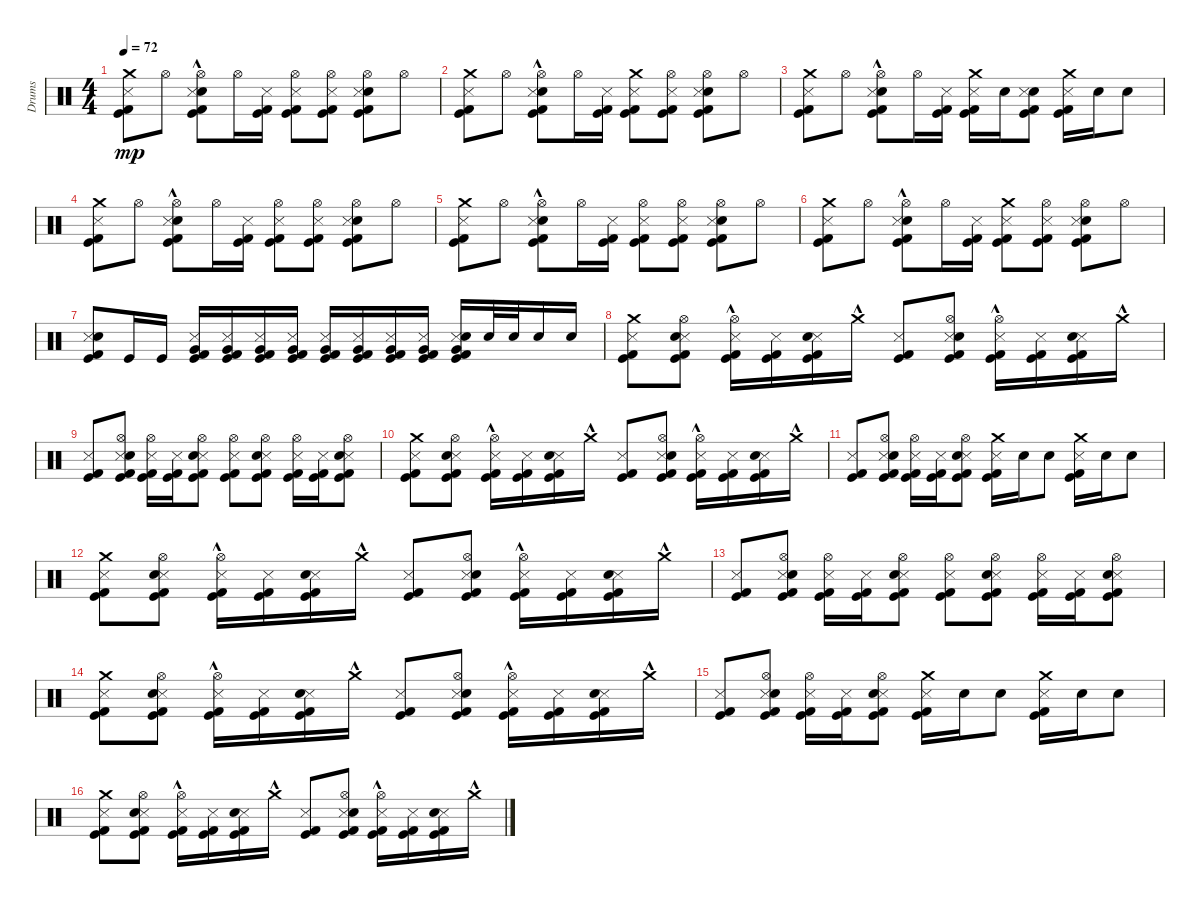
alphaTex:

\track ("Drums" "Drums") {instrument percussion}
\staff {score}
\articulation defaults
\ts (4 4)
\tempo 72
\clef neutral
\ks c
("Crash medium (hit)" "Metronome (hit)" "Kick (hit)" "Kick (hit) 2").8{dy mp} "Hi-Hat (open)".8 ("Snare (hit) 2" "Hi-Hat (open)" "Metronome (hit)"{hac} "Kick (hit)"{hac} "Kick (hit) 2"{hac}).8 "Hi-Hat (open)".16 ("Metronome (hit)" "Kick (hit)" "Kick (hit) 2").16 ("Hi-Hat (open)" "Metronome (hit)" "Kick (hit)" "Kick (hit) 2").8 ("Hi-Hat (open)" "Metronome (hit)" "Kick (hit)" "Kick (hit) 2").8 ("Snare (hit) 2" "Hi-Hat (open)" "Metronome (hit)" "Kick (hit)" "Kick (hit) 2").8 "Hi-Hat (open)".8 |
("Crash medium (hit)" "Metronome (hit)" "Kick (hit)" "Kick (hit) 2").8 "Hi-Hat (open)".8 ("Snare (hit) 2" "Hi-Hat (open)" "Metronome (hit)"{hac} "Kick (hit)"{hac} "Kick (hit) 2"{hac}).8 "Hi-Hat (open)".16 ("Metronome (hit)" "Kick (hit)" "Kick (hit) 2").16 ("Crash medium (hit)" "Metronome (hit)" "Kick (hit)" "Kick (hit) 2").8 ("Hi-Hat (open)" "Metronome (hit)" "Kick (hit)" "Kick (hit) 2").8 ("Snare (hit) 2" "Hi-Hat (open)" "Metronome (hit)" "Kick (hit)" "Kick (hit) 2").8 "Hi-Hat (open)".8 |
("Crash medium (hit)" "Metronome (hit)" "Kick (hit)" "Kick (hit) 2").8 "Hi-Hat (open)".8 ("Snare (hit) 2" "Hi-Hat (open)" "Metronome (hit)"{hac} "Kick (hit)"{hac} "Kick (hit) 2"{hac}).8 "Hi-Hat (open)".16 ("Metronome (hit)" "Kick (hit)" "Kick (hit) 2").16 ("Crash medium (hit)" "Metronome (hit)" "Kick (hit)" "Kick (hit) 2").16 "Snare (hit) 2".16 ("Snare (hit) 2" "Metronome (hit)" "Kick (hit)" "Kick (hit) 2").8 ("Crash medium (hit)" "Metronome (hit)" "Kick (hit)" "Kick (hit) 2").16 "Snare (hit) 2".16 "Snare (hit) 2".8 |
("Crash medium (hit)" "Metronome (hit)" "Kick (hit)" "Kick (hit) 2").8 "Hi-Hat (open)".8 ("Snare (hit) 2" "Hi-Hat (open)" "Metronome (hit)"{hac} "Kick (hit)"{hac} "Kick (hit) 2"{hac}).8 "Hi-Hat (open)".16 ("Metronome (hit)" "Kick (hit)" "Kick (hit) 2").16 ("Hi-Hat (open)" "Metronome (hit)" "Kick (hit)" "Kick (hit) 2").8 ("Hi-Hat (open)" "Metronome (hit)" "Kick (hit)" "Kick (hit) 2").8 ("Snare (hit) 2" "Hi-Hat (open)" "Metronome (hit)" "Kick (hit)" "Kick (hit) 2").8 "Hi-Hat (open)".8 |
("Crash medium (hit)" "Metronome (hit)" "Kick (hit)" "Kick (hit) 2").8 "Hi-Hat (open)".8 ("Snare (hit) 2" "Hi-Hat (open)" "Metronome (hit)"{hac} "Kick (hit)"{hac} "Kick (hit) 2"{hac}).8 "Hi-Hat (open)".16 ("Metronome (hit)" "Kick (hit)" "Kick (hit) 2").16 ("Hi-Hat (open)" "Metronome (hit)" "Kick (hit)" "Kick (hit) 2").8 ("Hi-Hat (open)" "Metronome (hit)" "Kick (hit)" "Kick (hit) 2").8 ("Snare (hit) 2" "Hi-Hat (open)" "Metronome (hit)" "Kick (hit)" "Kick (hit) 2").8 "Hi-Hat (open)".8 |
("Crash medium (hit)" "Metronome (hit)" "Kick (hit)" "Kick (hit) 2").8 "Hi-Hat (open)".8 ("Snare (hit) 2" "Hi-Hat (open)" "Metronome (hit)"{hac} "Kick (hit)"{hac} "Kick (hit) 2"{hac}).8 "Hi-Hat (open)".16 ("Metronome (hit)" "Kick (hit)" "Kick (hit) 2").16 ("Crash medium (hit)" "Metronome (hit)" "Kick (hit)" "Kick (hit) 2").8 ("Hi-Hat (open)" "Metronome (hit)" "Kick (hit)" "Kick (hit) 2").8 ("Snare (hit) 2" "Hi-Hat (open)" "Metronome (hit)" "Kick (hit)" "Kick (hit) 2").8 "Hi-Hat (open)".8 |
("Metronome (hit)" "Kick (hit)" "Kick (hit) 2" "Snare (hit) 2").8 "Kick (hit)".16 "Kick (hit)".16 ("Metronome (hit)" "Kick (hit)" "Kick (hit) 2" "Very Low Tom (hit)").16 ("Metronome (hit)" "Kick (hit)" "Kick (hit) 2" "Very Low Tom (hit)").16 ("Metronome (hit)" "Kick (hit)" "Kick (hit) 2" "Very Low Tom (hit)").16 ("Metronome (hit)" "Kick (hit)" "Kick (hit) 2" "Very Low Tom (hit)").16 ("Metronome (hit)" "Kick (hit)" "Kick (hit) 2" "Very Low Tom (hit)").16 ("Metronome (hit)" "Kick (hit)" "Kick (hit) 2" "Very Low Tom (hit)").16 ("Metronome (hit)" "Kick (hit)" "Kick (hit) 2" "Very Low Tom (hit)").16 ("Metronome (hit)" "Kick (hit)" "Kick (hit) 2" "Very Low Tom (hit)").16 ("Metronome (hit)" "Kick (hit)" "Kick (hit) 2" "Snare (hit) 2" "Very Low Tom (hit)").16 "Snare (hit) 2".32 "Snare (hit) 2".32 "Snare (hit) 2".16 "Snare (hit) 2".16 |
("Crash medium (hit)" "Metronome (hit)" "Kick (hit)" "Kick (hit) 2").8 ("Hi-Hat (open)" "Metronome (hit)" "Kick (hit)" "Kick (hit) 2" "Snare (hit) 2").8 ("Hi-Hat (open)"{hac} "Metronome (hit)" "Kick (hit)" "Kick (hit) 2").16 ("Metronome (hit)" "Kick (hit)" "Kick (hit) 2").16 ("Metronome (hit)" "Kick (hit)" "Kick (hit) 2" "Snare (hit) 2").16 "Crash medium (hit)"{hac}.16 ("Metronome (hit)" "Kick (hit)" "Kick (hit) 2").8 ("Hi-Hat (open)" "Metronome (hit)" "Kick (hit)" "Kick (hit) 2" "Snare (hit) 2").8 ("Hi-Hat (open)"{hac} "Metronome (hit)" "Kick (hit)" "Kick (hit) 2").16 ("Metronome (hit)" "Kick (hit)" "Kick (hit) 2").16 ("Metronome (hit)" "Kick (hit)" "Kick (hit) 2" "Snare (hit) 2").16 "Crash medium (hit)"{hac}.16 |
("Metronome (hit)" "Kick (hit)" "Kick (hit) 2").8 ("Hi-Hat (open)" "Metronome (hit)" "Kick (hit)" "Kick (hit) 2" "Snare (hit) 2").8 ("Hi-Hat (open)" "Metronome (hit)" "Kick (hit)" "Kick (hit) 2").16 ("Metronome (hit)" "Kick (hit)" "Kick (hit) 2").16 ("Hi-Hat (open)" "Metronome (hit)" "Kick (hit)" "Kick (hit) 2" "Snare (hit) 2").8 ("Hi-Hat (open)" "Metronome (hit)" "Kick (hit)" "Kick (hit) 2").8 ("Hi-Hat (open)" "Metronome (hit)" "Kick (hit)" "Kick (hit) 2" "Snare (hit) 2").8 ("Hi-Hat (open)" "Metronome (hit)" "Kick (hit)" "Kick (hit) 2").16 ("Metronome (hit)" "Kick (hit)" "Kick (hit) 2").16 ("Hi-Hat (open)" "Metronome (hit)" "Kick (hit)" "Kick (hit) 2" "Snare (hit) 2").8 |
("Crash medium (hit)" "Metronome (hit)" "Kick (hit)" "Kick (hit) 2").8 ("Hi-Hat (open)" "Metronome (hit)" "Kick (hit)" "Kick (hit) 2" "Snare (hit) 2").8 ("Hi-Hat (open)"{hac} "Metronome (hit)" "Kick (hit)" "Kick (hit) 2").16 ("Metronome (hit)" "Kick (hit)" "Kick (hit) 2").16 ("Metronome (hit)" "Kick (hit)" "Kick (hit) 2" "Snare (hit) 2").16 "Crash medium (hit)"{hac}.16 ("Metronome (hit)" "Kick (hit)" "Kick (hit) 2").8 ("Hi-Hat (open)" "Metronome (hit)" "Kick (hit)" "Kick (hit) 2" "Snare (hit) 2").8 ("Hi-Hat (open)"{hac} "Metronome (hit)" "Kick (hit)" "Kick (hit) 2").16 ("Metronome (hit)" "Kick (hit)" "Kick (hit) 2").16 ("Metronome (hit)" "Kick (hit)" "Kick (hit) 2" "Snare (hit) 2").16 "Crash medium (hit)"{hac}.16 |
("Metronome (hit)" "Kick (hit)" "Kick (hit) 2").8 ("Hi-Hat (open)" "Metronome (hit)" "Kick (hit)" "Kick (hit) 2" "Snare (hit) 2").8 ("Hi-Hat (open)" "Metronome (hit)" "Kick (hit)" "Kick (hit) 2").16 ("Metronome (hit)" "Kick (hit)" "Kick (hit) 2").16 ("Hi-Hat (open)" "Metronome (hit)" "Kick (hit)" "Kick (hit) 2" "Snare (hit) 2").8 ("Crash medium (hit)" "Metronome (hit)" "Kick (hit)" "Kick (hit) 2").16 "Snare (hit) 2".16 "Snare (hit) 2".8 ("Crash medium (hit)" "Metronome (hit)" "Kick (hit)" "Kick (hit) 2").16 "Snare (hit) 2".16 "Snare (hit) 2".8 |
("Crash medium (hit)" "Metronome (hit)" "Kick (hit)" "Kick (hit) 2").8 ("Hi-Hat (open)" "Metronome (hit)" "Kick (hit)" "Kick (hit) 2" "Snare (hit) 2").8 ("Hi-Hat (open)"{hac} "Metronome (hit)" "Kick (hit)" "Kick (hit) 2").16 ("Metronome (hit)" "Kick (hit)" "Kick (hit) 2").16 ("Metronome (hit)" "Kick (hit)" "Kick (hit) 2" "Snare (hit) 2").16 "Crash medium (hit)"{hac}.16 ("Metronome (hit)" "Kick (hit)" "Kick (hit) 2").8 ("Hi-Hat (open)" "Metronome (hit)" "Kick (hit)" "Kick (hit) 2" "Snare (hit) 2").8 ("Hi-Hat (open)"{hac} "Metronome (hit)" "Kick (hit)" "Kick (hit) 2").16 ("Metronome (hit)" "Kick (hit)" "Kick (hit) 2").16 ("Metronome (hit)" "Kick (hit)" "Kick (hit) 2" "Snare (hit) 2").16 "Crash medium (hit)"{hac}.16 |
("Metronome (hit)" "Kick (hit)" "Kick (hit) 2").8 ("Hi-Hat (open)" "Metronome (hit)" "Kick (hit)" "Kick (hit) 2" "Snare (hit) 2").8 ("Hi-Hat (open)" "Metronome (hit)" "Kick (hit)" "Kick (hit) 2").16 ("Metronome (hit)" "Kick (hit)" "Kick (hit) 2").16 ("Hi-Hat (open)" "Metronome (hit)" "Kick (hit)" "Kick (hit) 2" "Snare (hit) 2").8 ("Hi-Hat (open)" "Metronome (hit)" "Kick (hit)" "Kick (hit) 2").8 ("Hi-Hat (open)" "Metronome (hit)" "Kick (hit)" "Kick (hit) 2" "Snare (hit) 2").8 ("Hi-Hat (open)" "Metronome (hit)" "Kick (hit)" "Kick (hit) 2").16 ("Metronome (hit)" "Kick (hit)" "Kick (hit) 2").16 ("Hi-Hat (open)" "Metronome (hit)" "Kick (hit)" "Kick (hit) 2" "Snare (hit) 2").8 |
("Crash medium (hit)" "Metronome (hit)" "Kick (hit)" "Kick (hit) 2").8 ("Hi-Hat (open)" "Metronome (hit)" "Kick (hit)" "Kick (hit) 2" "Snare (hit) 2").8 ("Hi-Hat (open)"{hac} "Metronome (hit)" "Kick (hit)" "Kick (hit) 2").16 ("Metronome (hit)" "Kick (hit)" "Kick (hit) 2").16 ("Metronome (hit)" "Kick (hit)" "Kick (hit) 2" "Snare (hit) 2").16 "Crash medium (hit)"{hac}.16 ("Metronome (hit)" "Kick (hit)" "Kick (hit) 2").8 ("Hi-Hat (open)" "Metronome (hit)" "Kick (hit)" "Kick (hit) 2" "Snare (hit) 2").8 ("Hi-Hat (open)"{hac} "Metronome (hit)" "Kick (hit)" "Kick (hit) 2").16 ("Metronome (hit)" "Kick (hit)" "Kick (hit) 2").16 ("Metronome (hit)" "Kick (hit)" "Kick (hit) 2" "Snare (hit) 2").16 "Crash medium (hit)"{hac}.16 |
("Metronome (hit)" "Kick (hit)" "Kick (hit) 2").8 ("Hi-Hat (open)" "Metronome (hit)" "Kick (hit)" "Kick (hit) 2" "Snare (hit) 2").8 ("Hi-Hat (open)" "Metronome (hit)" "Kick (hit)" "Kick (hit) 2").16 ("Metronome (hit)" "Kick (hit)" "Kick (hit) 2").16 ("Hi-Hat (open)" "Metronome (hit)" "Kick (hit)" "Kick (hit) 2" "Snare (hit) 2").8 ("Crash medium (hit)" "Metronome (hit)" "Kick (hit)" "Kick (hit) 2").16 "Snare (hit) 2".16 "Snare (hit) 2".8 ("Crash medium (hit)" "Metronome (hit)" "Kick (hit)" "Kick (hit) 2").16 "Snare (hit) 2".16 "Snare (hit) 2".8 |
("Crash medium (hit)" "Metronome (hit)" "Kick (hit)" "Kick (hit) 2").8 ("Hi-Hat (open)" "Metronome (hit)" "Kick (hit)" "Kick (hit) 2" "Snare (hit) 2").8 ("Hi-Hat (open)"{hac} "Metronome (hit)" "Kick (hit)" "Kick (hit) 2").16 ("Metronome (hit)" "Kick (hit)" "Kick (hit) 2").16 ("Metronome (hit)" "Kick (hit)" "Kick (hit) 2" "Snare (hit) 2").16 "Crash medium (hit)"{hac}.16 ("Metronome (hit)" "Kick (hit)" "Kick (hit) 2").8 ("Hi-Hat (open)" "Metronome (hit)" "Kick (hit)" "Kick (hit) 2" "Snare (hit) 2").8 ("Hi-Hat (open)"{hac} "Metronome (hit)" "Kick (hit)" "Kick (hit) 2").16 ("Metronome (hit)" "Kick (hit)" "Kick (hit) 2").16 ("Metronome (hit)" "Kick (hit)" "Kick (hit) 2" "Snare (hit) 2").16 "Crash medium (hit)"{hac}.16
